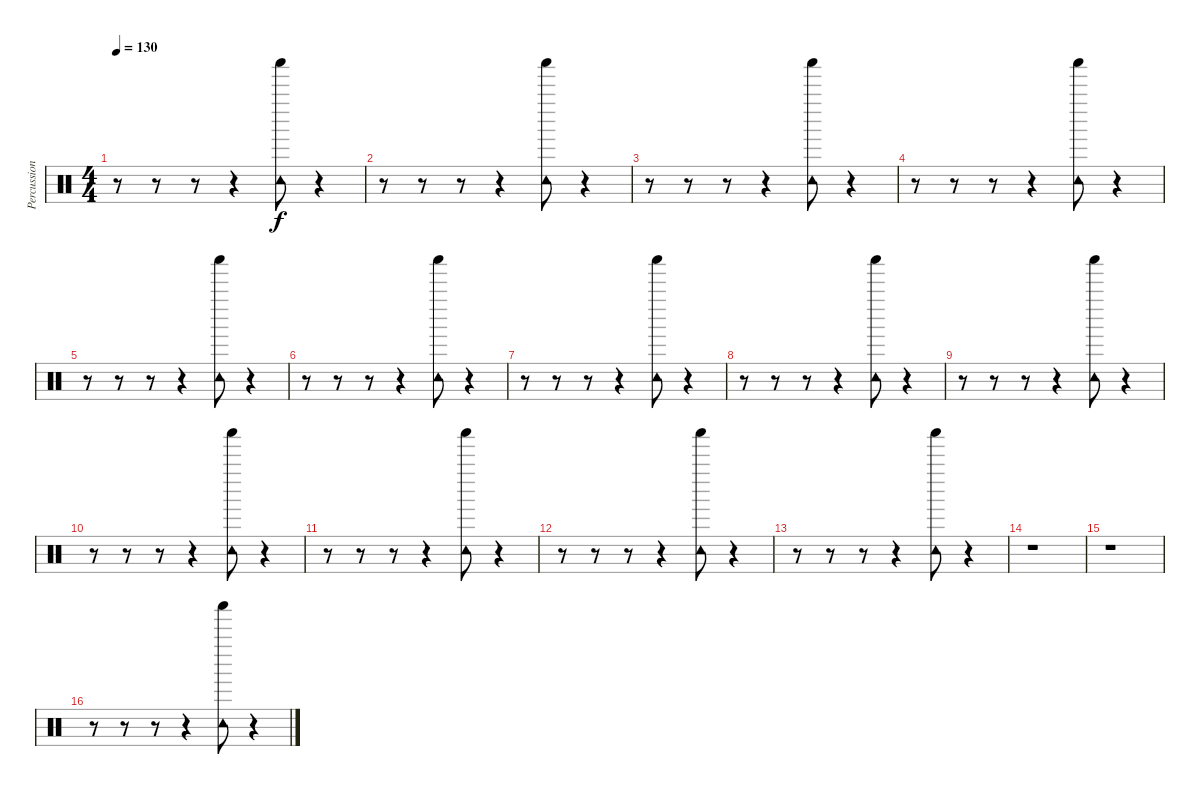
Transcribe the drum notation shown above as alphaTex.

\track ("Percussion" "Percussion") {instrument percussion}
\staff {score}
\articulation defaults
\ts (4 4)
\tempo 130
\clef neutral
\ks c
r.8{dy f} r.8 r.8 r.4 ("Shaker (hit)" "Tambourine (hit)").8 r.4 |
r.8 r.8 r.8 r.4 ("Shaker (hit)" "Tambourine (hit)").8 r.4 |
r.8 r.8 r.8 r.4 ("Shaker (hit)" "Tambourine (hit)").8 r.4 |
r.8 r.8 r.8 r.4 ("Shaker (hit)" "Tambourine (hit)").8 r.4 |
r.8 r.8 r.8 r.4 ("Shaker (hit)" "Tambourine (hit)").8 r.4 |
r.8 r.8 r.8 r.4 ("Shaker (hit)" "Tambourine (hit)").8 r.4 |
r.8 r.8 r.8 r.4 ("Shaker (hit)" "Tambourine (hit)").8 r.4 |
r.8 r.8 r.8 r.4 ("Shaker (hit)" "Tambourine (hit)").8 r.4 |
r.8 r.8 r.8 r.4 ("Shaker (hit)" "Tambourine (hit)").8 r.4 |
r.8 r.8 r.8 r.4 ("Shaker (hit)" "Tambourine (hit)").8 r.4 |
r.8 r.8 r.8 r.4 ("Shaker (hit)" "Tambourine (hit)").8 r.4 |
r.8 r.8 r.8 r.4 ("Shaker (hit)" "Tambourine (hit)").8 r.4 |
r.8 r.8 r.8 r.4 ("Shaker (hit)" "Tambourine (hit)").8 r.4 |
r.1 |
r.1 |
r.8 r.8 r.8 r.4 ("Shaker (hit)" "Tambourine (hit)").8 r.4
